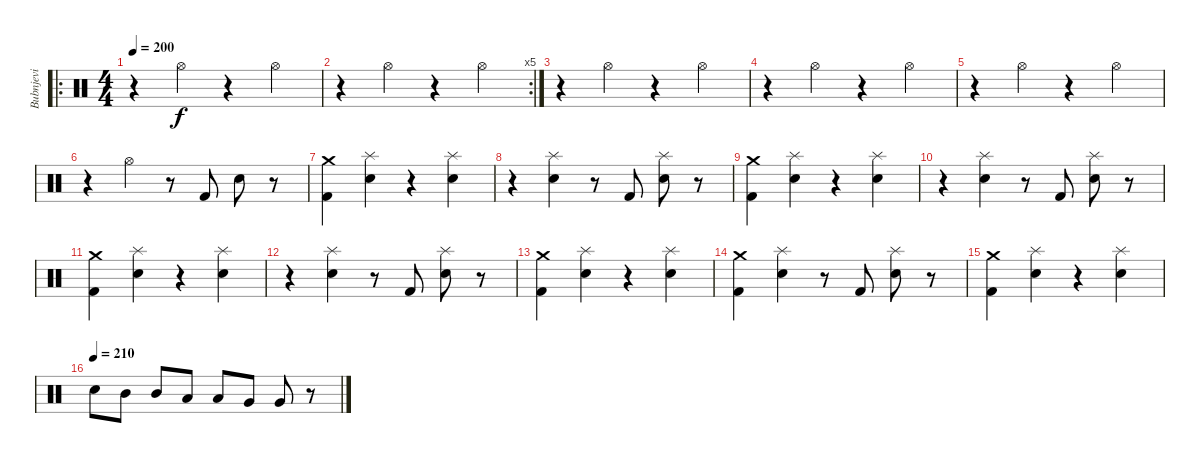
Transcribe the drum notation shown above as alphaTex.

\track ("Bubnjevi" "Bubnjevi") {instrument percussion}
\staff {score}
\articulation defaults
\ro
\ts (4 4)
\tempo 200
\clef neutral
\ks c
r.4{dy f} "Hi-Hat (open)".4 r.4 "Hi-Hat (open)".4 |
\rc 5
r.4 "Hi-Hat (open)".4 r.4 "Hi-Hat (open)".4 |
r.4 "Hi-Hat (open)".4 r.4 "Hi-Hat (open)".4 |
r.4 "Hi-Hat (open)".4 r.4 "Hi-Hat (open)".4 |
r.4 "Hi-Hat (open)".4 r.4 "Hi-Hat (open)".4 |
r.4 "Hi-Hat (open)".4 r.8 "Kick (hit) 2".8 "Electric Snare (hit)".8 r.8 |
("Crash medium (hit)" "Kick (hit) 2").4 ("Splash (hit)" "Electric Snare (hit)").4 r.4 ("Splash (hit)" "Electric Snare (hit)").4 |
r.4 ("Splash (hit)" "Electric Snare (hit)").4 r.8 "Kick (hit) 2".8 ("Splash (hit)" "Electric Snare (hit)").8 r.8 |
("Crash medium (hit)" "Kick (hit) 2").4 ("Splash (hit)" "Electric Snare (hit)").4 r.4 ("Splash (hit)" "Electric Snare (hit)").4 |
r.4 ("Splash (hit)" "Electric Snare (hit)").4 r.8 "Kick (hit) 2".8 ("Splash (hit)" "Electric Snare (hit)").8 r.8 |
("Crash medium (hit)" "Kick (hit) 2").4 ("Splash (hit)" "Electric Snare (hit)").4 r.4 ("Splash (hit)" "Electric Snare (hit)").4 |
r.4 ("Splash (hit)" "Electric Snare (hit)").4 r.8 "Kick (hit) 2".8 ("Splash (hit)" "Electric Snare (hit)").8 r.8 |
("Crash medium (hit)" "Kick (hit) 2").4 ("Splash (hit)" "Electric Snare (hit)").4 r.4 ("Splash (hit)" "Electric Snare (hit)").4 |
("Crash medium (hit)" "Kick (hit) 2").4 ("Splash (hit)" "Electric Snare (hit)").4 r.8 "Kick (hit) 2".8 ("Splash (hit)" "Electric Snare (hit)").8 r.8 |
("Crash medium (hit)" "Kick (hit) 2").4 ("Splash (hit)" "Electric Snare (hit)").4 r.4 ("Splash (hit)" "Electric Snare (hit)").4 |
\tempo (210)
"Electric Snare (hit)".8 "Mid Tom (hit)".8 "Mid Tom (hit)".8 "Low Tom (hit)".8 "Low Tom (hit)".8 "Very Low Tom (hit)".8 "Very Low Tom (hit)".8 r.8
